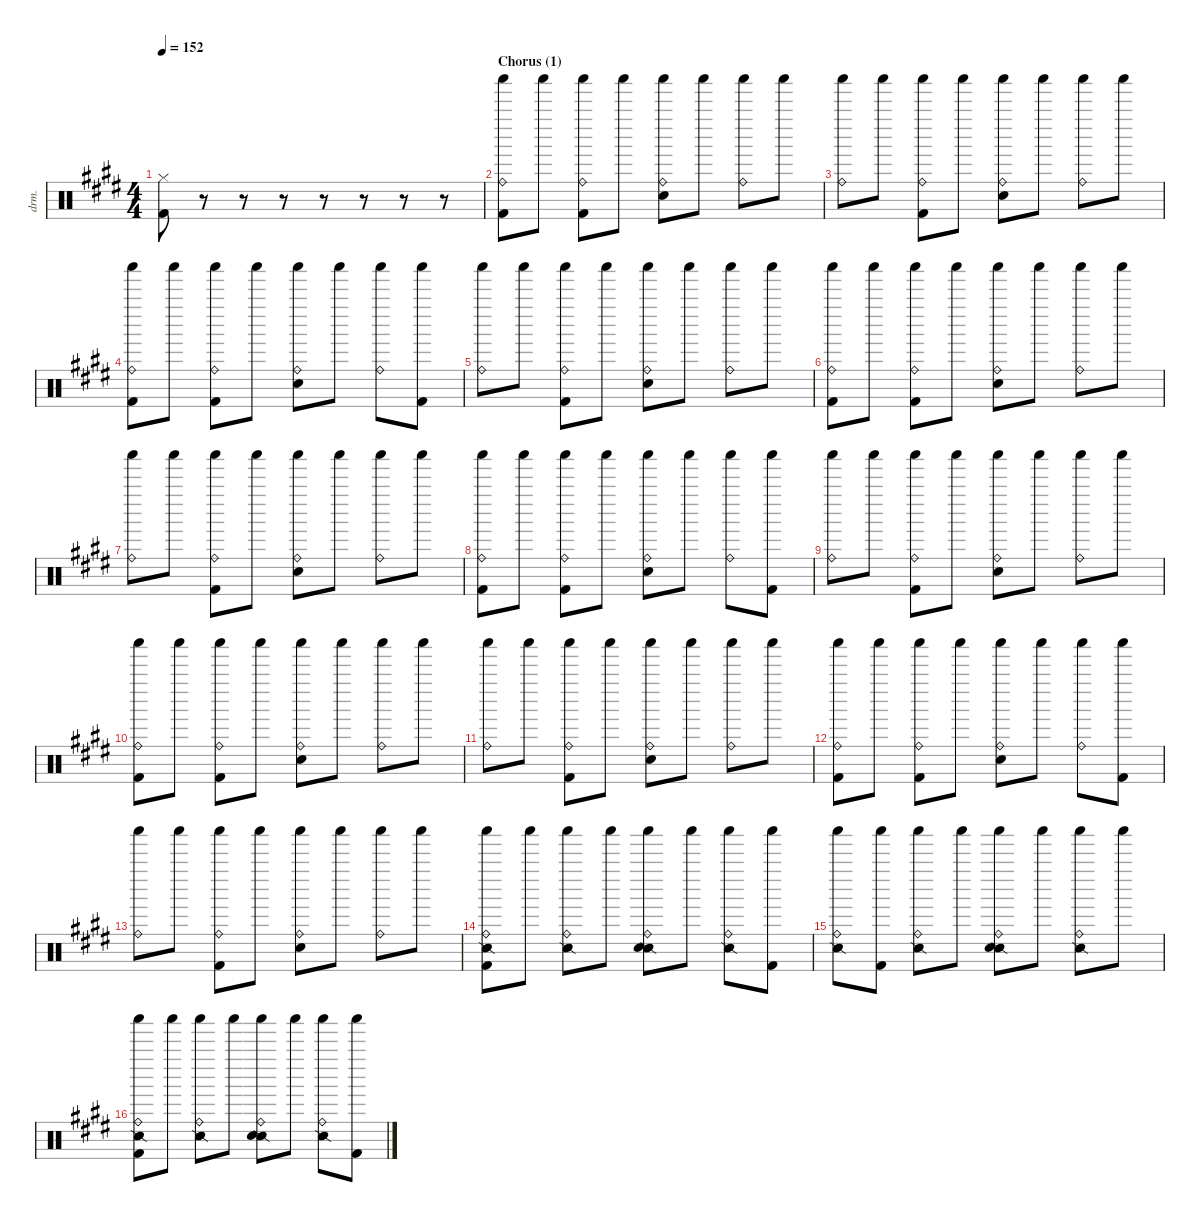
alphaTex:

\defaultSystemsLayout 4
\hideDynamics
\bracketExtendMode nobrackets
\otherSystemsTrackNameOrientation horizontal
\track ("Drums" "drm.") {instrument percussion}
\staff {score}
\articulation defaults
\ts (4 4)
\tempo 152
\clef neutral
\ks c#minor
("Kick (hit) 2"{acc forcenatural} "Hi-Hat (closed)"{acc forcenatural}).8{dy f} r.8 r.8 r.8 r.8 r.8 r.8 r.8 |
\section ("" "Chorus (1)")
("Ride (bell)"{acc forcenatural} "Kick (hit) 2"{acc forcenatural} "Shaker (hit)"{acc forcenatural}).8 "Shaker (hit)"{acc forcenatural}.8 ("Ride (bell)"{acc forcenatural} "Kick (hit) 2"{acc forcenatural} "Shaker (hit)"{acc forcenatural}).8 "Shaker (hit)"{acc forcenatural}.8 ("Ride (bell)"{acc forcenatural} "Snare (hit) 2"{acc forcenatural} "Shaker (hit)"{acc forcenatural}).8 "Shaker (hit)"{acc forcenatural}.8 ("Ride (bell)"{acc forcenatural} "Shaker (hit)"{acc forcenatural}).8 "Shaker (hit)"{acc forcenatural}.8 |
("Ride (bell)"{acc forcenatural} "Shaker (hit)"{acc forcenatural}).8 "Shaker (hit)"{acc forcenatural}.8 ("Ride (bell)"{acc forcenatural} "Kick (hit) 2"{acc forcenatural} "Shaker (hit)"{acc forcenatural}).8 "Shaker (hit)"{acc forcenatural}.8 ("Ride (bell)"{acc forcenatural} "Snare (hit) 2"{acc forcenatural} "Shaker (hit)"{acc forcenatural}).8 "Shaker (hit)"{acc forcenatural}.8 ("Ride (bell)"{acc forcenatural} "Shaker (hit)"{acc forcenatural}).8 "Shaker (hit)"{acc forcenatural}.8 |
("Ride (bell)"{acc forcenatural} "Kick (hit) 2"{acc forcenatural} "Shaker (hit)"{acc forcenatural}).8 "Shaker (hit)"{acc forcenatural}.8 ("Ride (bell)"{acc forcenatural} "Kick (hit) 2"{acc forcenatural} "Shaker (hit)"{acc forcenatural}).8 "Shaker (hit)"{acc forcenatural}.8 ("Ride (bell)"{acc forcenatural} "Snare (hit) 2"{acc forcenatural} "Shaker (hit)"{acc forcenatural}).8 "Shaker (hit)"{acc forcenatural}.8 ("Ride (bell)"{acc forcenatural} "Shaker (hit)"{acc forcenatural}).8 ("Kick (hit) 2"{acc forcenatural} "Shaker (hit)"{acc forcenatural}).8 |
("Ride (bell)"{acc forcenatural} "Shaker (hit)"{acc forcenatural}).8 "Shaker (hit)"{acc forcenatural}.8 ("Ride (bell)"{acc forcenatural} "Kick (hit) 2"{acc forcenatural} "Shaker (hit)"{acc forcenatural}).8 "Shaker (hit)"{acc forcenatural}.8 ("Ride (bell)"{acc forcenatural} "Snare (hit) 2"{acc forcenatural} "Shaker (hit)"{acc forcenatural}).8 "Shaker (hit)"{acc forcenatural}.8 ("Ride (bell)"{acc forcenatural} "Shaker (hit)"{acc forcenatural}).8 "Shaker (hit)"{acc forcenatural}.8 |
("Ride (bell)"{acc forcenatural} "Kick (hit) 2"{acc forcenatural} "Shaker (hit)"{acc forcenatural}).8 "Shaker (hit)"{acc forcenatural}.8 ("Ride (bell)"{acc forcenatural} "Kick (hit) 2"{acc forcenatural} "Shaker (hit)"{acc forcenatural}).8 "Shaker (hit)"{acc forcenatural}.8 ("Ride (bell)"{acc forcenatural} "Snare (hit) 2"{acc forcenatural} "Shaker (hit)"{acc forcenatural}).8 "Shaker (hit)"{acc forcenatural}.8 ("Ride (bell)"{acc forcenatural} "Shaker (hit)"{acc forcenatural}).8 "Shaker (hit)"{acc forcenatural}.8 |
("Ride (bell)"{acc forcenatural} "Shaker (hit)"{acc forcenatural}).8 "Shaker (hit)"{acc forcenatural}.8 ("Ride (bell)"{acc forcenatural} "Kick (hit) 2"{acc forcenatural} "Shaker (hit)"{acc forcenatural}).8 "Shaker (hit)"{acc forcenatural}.8 ("Ride (bell)"{acc forcenatural} "Snare (hit) 2"{acc forcenatural} "Shaker (hit)"{acc forcenatural}).8 "Shaker (hit)"{acc forcenatural}.8 ("Ride (bell)"{acc forcenatural} "Shaker (hit)"{acc forcenatural}).8 "Shaker (hit)"{acc forcenatural}.8 |
("Ride (bell)"{acc forcenatural} "Kick (hit) 2"{acc forcenatural} "Shaker (hit)"{acc forcenatural}).8 "Shaker (hit)"{acc forcenatural}.8 ("Ride (bell)"{acc forcenatural} "Kick (hit) 2"{acc forcenatural} "Shaker (hit)"{acc forcenatural}).8 "Shaker (hit)"{acc forcenatural}.8 ("Ride (bell)"{acc forcenatural} "Snare (hit) 2"{acc forcenatural} "Shaker (hit)"{acc forcenatural}).8 "Shaker (hit)"{acc forcenatural}.8 ("Ride (bell)"{acc forcenatural} "Shaker (hit)"{acc forcenatural}).8 ("Kick (hit) 2"{acc forcenatural} "Shaker (hit)"{acc forcenatural}).8 |
("Ride (bell)"{acc forcenatural} "Shaker (hit)"{acc forcenatural}).8 "Shaker (hit)"{acc forcenatural}.8 ("Ride (bell)"{acc forcenatural} "Kick (hit) 2"{acc forcenatural} "Shaker (hit)"{acc forcenatural}).8 "Shaker (hit)"{acc forcenatural}.8 ("Ride (bell)"{acc forcenatural} "Snare (hit) 2"{acc forcenatural} "Shaker (hit)"{acc forcenatural}).8 "Shaker (hit)"{acc forcenatural}.8 ("Ride (bell)"{acc forcenatural} "Shaker (hit)"{acc forcenatural}).8 "Shaker (hit)"{acc forcenatural}.8 |
("Ride (bell)"{acc forcenatural} "Kick (hit) 2"{acc forcenatural} "Shaker (hit)"{acc forcenatural}).8 "Shaker (hit)"{acc forcenatural}.8 ("Ride (bell)"{acc forcenatural} "Kick (hit) 2"{acc forcenatural} "Shaker (hit)"{acc forcenatural}).8 "Shaker (hit)"{acc forcenatural}.8 ("Ride (bell)"{acc forcenatural} "Snare (hit) 2"{acc forcenatural} "Shaker (hit)"{acc forcenatural}).8 "Shaker (hit)"{acc forcenatural}.8 ("Ride (bell)"{acc forcenatural} "Shaker (hit)"{acc forcenatural}).8 "Shaker (hit)"{acc forcenatural}.8 |
("Ride (bell)"{acc forcenatural} "Shaker (hit)"{acc forcenatural}).8 "Shaker (hit)"{acc forcenatural}.8 ("Ride (bell)"{acc forcenatural} "Kick (hit) 2"{acc forcenatural} "Shaker (hit)"{acc forcenatural}).8 "Shaker (hit)"{acc forcenatural}.8 ("Ride (bell)"{acc forcenatural} "Snare (hit) 2"{acc forcenatural} "Shaker (hit)"{acc forcenatural}).8 "Shaker (hit)"{acc forcenatural}.8 ("Ride (bell)"{acc forcenatural} "Shaker (hit)"{acc forcenatural}).8 "Shaker (hit)"{acc forcenatural}.8 |
("Ride (bell)"{acc forcenatural} "Kick (hit) 2"{acc forcenatural} "Shaker (hit)"{acc forcenatural}).8 "Shaker (hit)"{acc forcenatural}.8 ("Ride (bell)"{acc forcenatural} "Kick (hit) 2"{acc forcenatural} "Shaker (hit)"{acc forcenatural}).8 "Shaker (hit)"{acc forcenatural}.8 ("Ride (bell)"{acc forcenatural} "Snare (hit) 2"{acc forcenatural} "Shaker (hit)"{acc forcenatural}).8 "Shaker (hit)"{acc forcenatural}.8 ("Ride (bell)"{acc forcenatural} "Shaker (hit)"{acc forcenatural}).8 ("Kick (hit) 2"{acc forcenatural} "Shaker (hit)"{acc forcenatural}).8 |
("Ride (bell)"{acc forcenatural} "Shaker (hit)"{acc forcenatural}).8 "Shaker (hit)"{acc forcenatural}.8 ("Ride (bell)"{acc forcenatural} "Kick (hit) 2"{acc forcenatural} "Shaker (hit)"{acc forcenatural}).8 "Shaker (hit)"{acc forcenatural}.8 ("Ride (bell)"{acc forcenatural} "Snare (hit) 2"{acc forcenatural} "Shaker (hit)"{acc forcenatural}).8 "Shaker (hit)"{acc forcenatural}.8 ("Ride (bell)"{acc forcenatural} "Shaker (hit)"{acc forcenatural}).8 "Shaker (hit)"{acc forcenatural}.8 |
("Snare (side stick) 2"{acc forcenatural} "Ride (bell)"{acc forcenatural} "Kick (hit) 2"{acc forcenatural} "Shaker (hit)"{acc forcenatural}).8 "Shaker (hit)"{acc forcenatural}.8 ("Snare (side stick) 2"{acc forcenatural} "Ride (bell)"{acc forcenatural} "Shaker (hit)"{acc forcenatural}).8 "Shaker (hit)"{acc forcenatural}.8 ("Snare (side stick) 2"{acc forcenatural} "Ride (bell)"{acc forcenatural} "Snare (hit) 2"{acc forcenatural} "Shaker (hit)"{acc forcenatural}).8 "Shaker (hit)"{acc forcenatural}.8 ("Snare (side stick) 2"{acc forcenatural} "Ride (bell)"{acc forcenatural} "Shaker (hit)"{acc forcenatural}).8 ("Kick (hit) 2"{acc forcenatural} "Shaker (hit)"{acc forcenatural}).8 |
("Snare (side stick) 2"{acc forcenatural} "Ride (bell)"{acc forcenatural} "Shaker (hit)"{acc forcenatural}).8 ("Shaker (hit)"{acc forcenatural} "Kick (hit) 2"{acc forcenatural}).8 ("Snare (side stick) 2"{acc forcenatural} "Ride (bell)"{acc forcenatural} "Shaker (hit)"{acc forcenatural}).8 "Shaker (hit)"{acc forcenatural}.8 ("Snare (side stick) 2"{acc forcenatural} "Ride (bell)"{acc forcenatural} "Snare (hit) 2"{acc forcenatural} "Shaker (hit)"{acc forcenatural}).8 "Shaker (hit)"{acc forcenatural}.8 ("Snare (side stick) 2"{acc forcenatural} "Ride (bell)"{acc forcenatural} "Shaker (hit)"{acc forcenatural}).8 "Shaker (hit)"{acc forcenatural}.8 |
("Snare (side stick) 2"{acc forcenatural} "Ride (bell)"{acc forcenatural} "Kick (hit) 2"{acc forcenatural} "Shaker (hit)"{acc forcenatural}).8 "Shaker (hit)"{acc forcenatural}.8 ("Snare (side stick) 2"{acc forcenatural} "Ride (bell)"{acc forcenatural} "Shaker (hit)"{acc forcenatural}).8 "Shaker (hit)"{acc forcenatural}.8 ("Snare (side stick) 2"{acc forcenatural} "Ride (bell)"{acc forcenatural} "Snare (hit) 2"{acc forcenatural} "Shaker (hit)"{acc forcenatural}).8 "Shaker (hit)"{acc forcenatural}.8 ("Snare (side stick) 2"{acc forcenatural} "Ride (bell)"{acc forcenatural} "Shaker (hit)"{acc forcenatural}).8 ("Kick (hit) 2"{acc forcenatural} "Shaker (hit)"{acc forcenatural}).8
